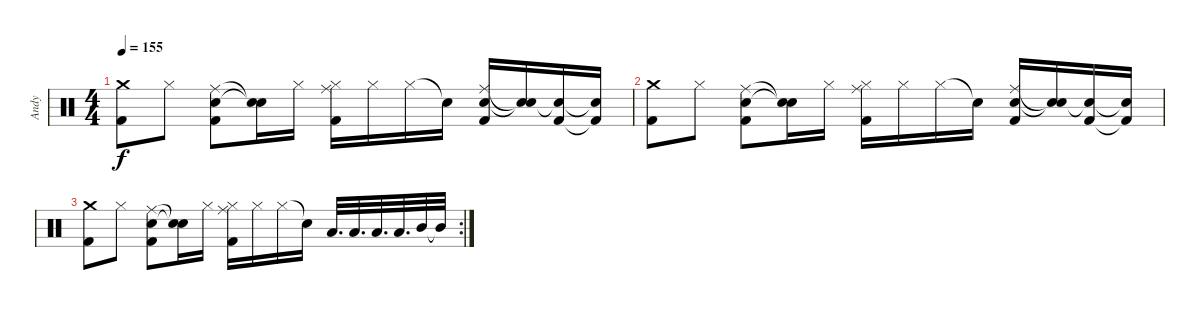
\track ("Andy" "Andy") {instrument percussion}
\staff {score}
\articulation defaults
\ts (4 4)
\tempo 155
\clef neutral
\ks c
("Crash medium (hit)" "Kick (hit) 2").8{dy f} "Hi-Hat (closed)".8 ("Ride (middle)" "Electric Snare (hit)" "Kick (hit) 2").8 ("Snare (hit)"{t} "Snare (hit)"{t}).16 "Hi-Hat (closed)".16 ("Ride (middle)" "Hi-Hat (closed)" "Kick (hit) 2").16 "Hi-Hat (closed)".16 "Hi-Hat (closed)".16 "Electric Snare (hit)"{t}.16 ("Ride (middle)" "Electric Snare (hit)" "Kick (hit) 2").16 ("Snare (hit)"{t} "Snare (hit)"{t}).16 ("Snare (hit)"{t} "Kick (hit) 2").16 ("Snare (hit)"{t} "Kick (hit) 2"{t}).16 |
("Crash medium (hit)" "Kick (hit) 2").8 "Hi-Hat (closed)".8 ("Ride (middle)" "Electric Snare (hit)" "Kick (hit) 2").8 ("Snare (hit)"{t} "Snare (hit)"{t}).16 "Hi-Hat (closed)".16 ("Ride (middle)" "Hi-Hat (closed)" "Kick (hit) 2").16 "Hi-Hat (closed)".16 "Hi-Hat (closed)".16 "Electric Snare (hit)"{t}.16 ("Ride (middle)" "Electric Snare (hit)" "Kick (hit) 2").16 ("Snare (hit)"{t} "Snare (hit)"{t}).16 ("Snare (hit)"{t} "Kick (hit) 2").16 ("Snare (hit)"{t} "Kick (hit) 2"{t}).16 |
\rc 2
("Crash medium (hit)" "Kick (hit) 2").8 "Hi-Hat (closed)".8 ("Ride (middle)" "Electric Snare (hit)" "Kick (hit) 2").8 ("Snare (hit)"{t} "Snare (hit)"{t}).16 "Hi-Hat (closed)".16 ("Ride (middle)" "Hi-Hat (closed)" "Kick (hit) 2").16 "Hi-Hat (closed)".16 "Hi-Hat (closed)".16 "Electric Snare (hit)"{t}.16 "Low Tom (hit)".32{d} "Low Tom (hit)".32{d} "Low Tom (hit)".32{d} "Low Tom (hit)".32{d} "Mid Tom (hit)".32 "Mid Tom (hit)"{t}.32
